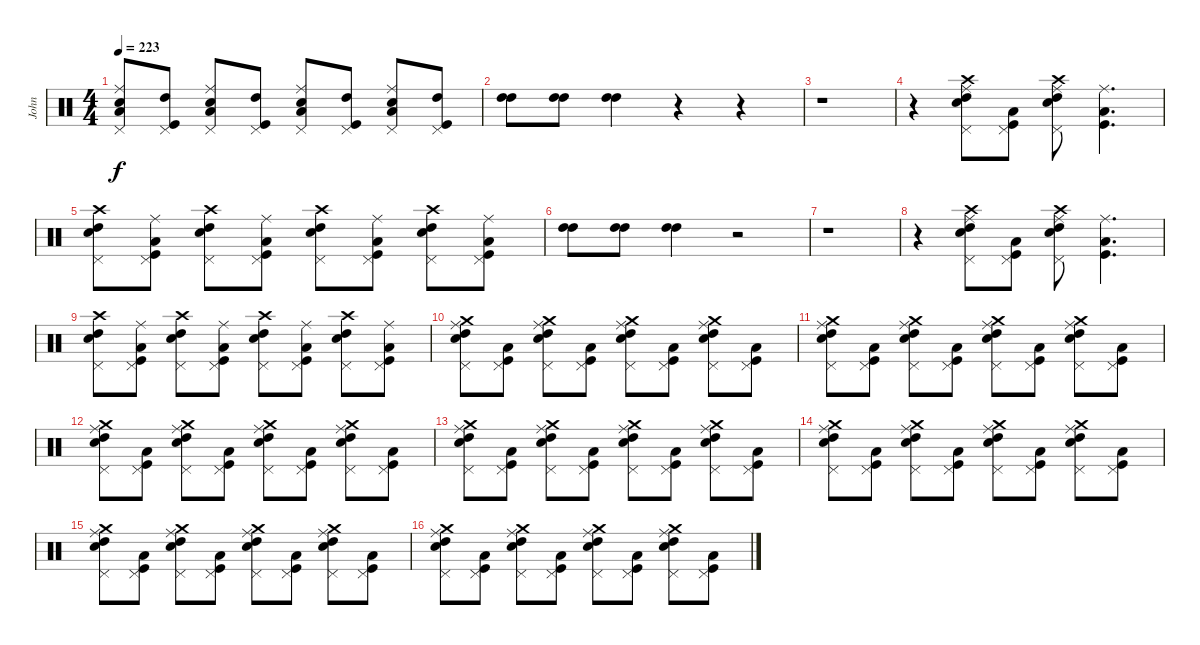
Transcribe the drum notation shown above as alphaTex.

\track ("John" "John") {instrument percussion}
\staff {score}
\articulation defaults
\ts (4 4)
\tempo 223
\clef neutral
\ks c
("Ride (middle)" "Snare (hit) 2" "Low Tom (hit)" "Pedal Hi-Hat (hit)").8{dy f} ("Kick (hit)" "High Tom (hit)" "Pedal Hi-Hat (hit)").8 ("Ride (middle)" "Snare (hit) 2" "Low Tom (hit)" "Pedal Hi-Hat (hit)").8 ("Kick (hit)" "High Tom (hit)" "Pedal Hi-Hat (hit)").8 ("Ride (middle)" "Snare (hit) 2" "Low Tom (hit)" "Pedal Hi-Hat (hit)").8 ("Kick (hit)" "High Tom (hit)" "Pedal Hi-Hat (hit)").8 ("Ride (middle)" "Snare (hit) 2" "Low Tom (hit)" "Pedal Hi-Hat (hit)").8 ("Kick (hit)" "High Tom (hit)" "Pedal Hi-Hat (hit)").8 |
("High Tom (hit)" "High Tom (hit)").8 ("High Tom (hit)" "High Tom (hit)").8 ("High Tom (hit)" "High Tom (hit)").4 r.4 r.4 |
r.1 |
r.4 ("Crash high (hit)" "Ride (middle)" "Snare (hit) 2" "High Tom (hit)" "Pedal Hi-Hat (hit)").8 ("Kick (hit)" "Low Tom (hit)" "Pedal Hi-Hat (hit)").8 ("Crash high (hit)" "Ride (middle)" "Snare (hit) 2" "High Tom (hit)" "Pedal Hi-Hat (hit)").8 ("Ride (middle)" "Kick (hit)" "Low Tom (hit)").4{d} |
("Crash high (hit)" "Snare (hit) 2" "High Tom (hit)" "Pedal Hi-Hat (hit)").8 ("Ride (middle)" "Kick (hit)" "Low Tom (hit)" "Pedal Hi-Hat (hit)").8 ("Crash high (hit)" "Snare (hit) 2" "High Tom (hit)" "Pedal Hi-Hat (hit)").8 ("Ride (middle)" "Kick (hit)" "Low Tom (hit)" "Pedal Hi-Hat (hit)").8 ("Crash high (hit)" "Snare (hit) 2" "High Tom (hit)" "Pedal Hi-Hat (hit)").8 ("Ride (middle)" "Kick (hit)" "Low Tom (hit)" "Pedal Hi-Hat (hit)").8 ("Crash high (hit)" "Snare (hit) 2" "High Tom (hit)" "Pedal Hi-Hat (hit)").8 ("Ride (middle)" "Kick (hit)" "Low Tom (hit)" "Pedal Hi-Hat (hit)").8 |
("High Tom (hit)" "High Tom (hit)").8 ("High Tom (hit)" "High Tom (hit)").8 ("High Tom (hit)" "High Tom (hit)").4 r.2 |
r.1 |
r.4 ("Crash high (hit)" "Ride (middle)" "Snare (hit) 2" "High Tom (hit)" "Pedal Hi-Hat (hit)").8 ("Kick (hit)" "Low Tom (hit)" "Pedal Hi-Hat (hit)").8 ("Crash high (hit)" "Ride (middle)" "Snare (hit) 2" "High Tom (hit)" "Pedal Hi-Hat (hit)").8 ("Ride (middle)" "Kick (hit)" "Low Tom (hit)").4{d} |
("Crash high (hit)" "Snare (hit) 2" "High Tom (hit)" "Pedal Hi-Hat (hit)").8 ("Ride (middle)" "Kick (hit)" "Low Tom (hit)" "Pedal Hi-Hat (hit)").8 ("Crash high (hit)" "Snare (hit) 2" "High Tom (hit)" "Pedal Hi-Hat (hit)").8 ("Ride (middle)" "Kick (hit)" "Low Tom (hit)" "Pedal Hi-Hat (hit)").8 ("Crash high (hit)" "Snare (hit) 2" "High Tom (hit)" "Pedal Hi-Hat (hit)").8 ("Ride (middle)" "Kick (hit)" "Low Tom (hit)" "Pedal Hi-Hat (hit)").8 ("Crash high (hit)" "Snare (hit) 2" "High Tom (hit)" "Pedal Hi-Hat (hit)").8 ("Ride (middle)" "Kick (hit)" "Low Tom (hit)" "Pedal Hi-Hat (hit)").8 |
("Crash medium (hit)" "Ride (middle)" "Snare (hit) 2" "High Tom (hit)" "Pedal Hi-Hat (hit)").8 ("Kick (hit)" "Low Tom (hit)" "Pedal Hi-Hat (hit)").8 ("Crash medium (hit)" "Ride (middle)" "Snare (hit) 2" "High Tom (hit)" "Pedal Hi-Hat (hit)").8 ("Kick (hit)" "Low Tom (hit)" "Pedal Hi-Hat (hit)").8 ("Crash medium (hit)" "Ride (middle)" "Snare (hit) 2" "High Tom (hit)" "Pedal Hi-Hat (hit)").8 ("Kick (hit)" "Low Tom (hit)" "Pedal Hi-Hat (hit)").8 ("Crash medium (hit)" "Ride (middle)" "Snare (hit) 2" "High Tom (hit)" "Pedal Hi-Hat (hit)").8 ("Kick (hit)" "Low Tom (hit)" "Pedal Hi-Hat (hit)").8 |
("Crash medium (hit)" "Ride (middle)" "Snare (hit) 2" "High Tom (hit)" "Pedal Hi-Hat (hit)").8 ("Kick (hit)" "Low Tom (hit)" "Pedal Hi-Hat (hit)").8 ("Crash medium (hit)" "Ride (middle)" "Snare (hit) 2" "High Tom (hit)" "Pedal Hi-Hat (hit)").8 ("Kick (hit)" "Low Tom (hit)" "Pedal Hi-Hat (hit)").8 ("Crash medium (hit)" "Ride (middle)" "Snare (hit) 2" "High Tom (hit)" "Pedal Hi-Hat (hit)").8 ("Kick (hit)" "Low Tom (hit)" "Pedal Hi-Hat (hit)").8 ("Crash medium (hit)" "Ride (middle)" "Snare (hit) 2" "High Tom (hit)" "Pedal Hi-Hat (hit)").8 ("Kick (hit)" "Low Tom (hit)" "Pedal Hi-Hat (hit)").8 |
("Crash medium (hit)" "Ride (middle)" "Snare (hit) 2" "High Tom (hit)" "Pedal Hi-Hat (hit)").8 ("Kick (hit)" "Low Tom (hit)" "Pedal Hi-Hat (hit)").8 ("Crash medium (hit)" "Ride (middle)" "Snare (hit) 2" "High Tom (hit)" "Pedal Hi-Hat (hit)").8 ("Kick (hit)" "Low Tom (hit)" "Pedal Hi-Hat (hit)").8 ("Crash medium (hit)" "Ride (middle)" "Snare (hit) 2" "High Tom (hit)" "Pedal Hi-Hat (hit)").8 ("Kick (hit)" "Low Tom (hit)" "Pedal Hi-Hat (hit)").8 ("Crash medium (hit)" "Ride (middle)" "Snare (hit) 2" "High Tom (hit)" "Pedal Hi-Hat (hit)").8 ("Kick (hit)" "Low Tom (hit)" "Pedal Hi-Hat (hit)").8 |
("Crash medium (hit)" "Ride (middle)" "Snare (hit) 2" "High Tom (hit)" "Pedal Hi-Hat (hit)").8 ("Kick (hit)" "Low Tom (hit)" "Pedal Hi-Hat (hit)").8 ("Crash medium (hit)" "Ride (middle)" "Snare (hit) 2" "High Tom (hit)" "Pedal Hi-Hat (hit)").8 ("Kick (hit)" "Low Tom (hit)" "Pedal Hi-Hat (hit)").8 ("Crash medium (hit)" "Ride (middle)" "Snare (hit) 2" "High Tom (hit)" "Pedal Hi-Hat (hit)").8 ("Kick (hit)" "Low Tom (hit)" "Pedal Hi-Hat (hit)").8 ("Crash medium (hit)" "Ride (middle)" "Snare (hit) 2" "High Tom (hit)" "Pedal Hi-Hat (hit)").8 ("Kick (hit)" "Low Tom (hit)" "Pedal Hi-Hat (hit)").8 |
("Crash medium (hit)" "Ride (middle)" "Snare (hit) 2" "High Tom (hit)" "Pedal Hi-Hat (hit)").8 ("Kick (hit)" "Low Tom (hit)" "Pedal Hi-Hat (hit)").8 ("Crash medium (hit)" "Ride (middle)" "Snare (hit) 2" "High Tom (hit)" "Pedal Hi-Hat (hit)").8 ("Kick (hit)" "Low Tom (hit)" "Pedal Hi-Hat (hit)").8 ("Crash medium (hit)" "Ride (middle)" "Snare (hit) 2" "High Tom (hit)" "Pedal Hi-Hat (hit)").8 ("Kick (hit)" "Low Tom (hit)" "Pedal Hi-Hat (hit)").8 ("Crash medium (hit)" "Ride (middle)" "Snare (hit) 2" "High Tom (hit)" "Pedal Hi-Hat (hit)").8 ("Kick (hit)" "Low Tom (hit)" "Pedal Hi-Hat (hit)").8 |
("Crash medium (hit)" "Ride (middle)" "Snare (hit) 2" "High Tom (hit)" "Pedal Hi-Hat (hit)").8 ("Kick (hit)" "Low Tom (hit)" "Pedal Hi-Hat (hit)").8 ("Crash medium (hit)" "Ride (middle)" "Snare (hit) 2" "High Tom (hit)" "Pedal Hi-Hat (hit)").8 ("Kick (hit)" "Low Tom (hit)" "Pedal Hi-Hat (hit)").8 ("Crash medium (hit)" "Ride (middle)" "Snare (hit) 2" "High Tom (hit)" "Pedal Hi-Hat (hit)").8 ("Kick (hit)" "Low Tom (hit)" "Pedal Hi-Hat (hit)").8 ("Crash medium (hit)" "Ride (middle)" "Snare (hit) 2" "High Tom (hit)" "Pedal Hi-Hat (hit)").8 ("Kick (hit)" "Low Tom (hit)" "Pedal Hi-Hat (hit)").8 |
("Crash medium (hit)" "Ride (middle)" "Snare (hit) 2" "High Tom (hit)" "Pedal Hi-Hat (hit)").8 ("Kick (hit)" "Low Tom (hit)" "Pedal Hi-Hat (hit)").8 ("Crash medium (hit)" "Ride (middle)" "Snare (hit) 2" "High Tom (hit)" "Pedal Hi-Hat (hit)").8 ("Kick (hit)" "Low Tom (hit)" "Pedal Hi-Hat (hit)").8 ("Crash medium (hit)" "Ride (middle)" "Snare (hit) 2" "High Tom (hit)" "Pedal Hi-Hat (hit)").8 ("Kick (hit)" "Low Tom (hit)" "Pedal Hi-Hat (hit)").8 ("Crash medium (hit)" "Ride (middle)" "Snare (hit) 2" "High Tom (hit)" "Pedal Hi-Hat (hit)").8 ("Kick (hit)" "Low Tom (hit)" "Pedal Hi-Hat (hit)").8
